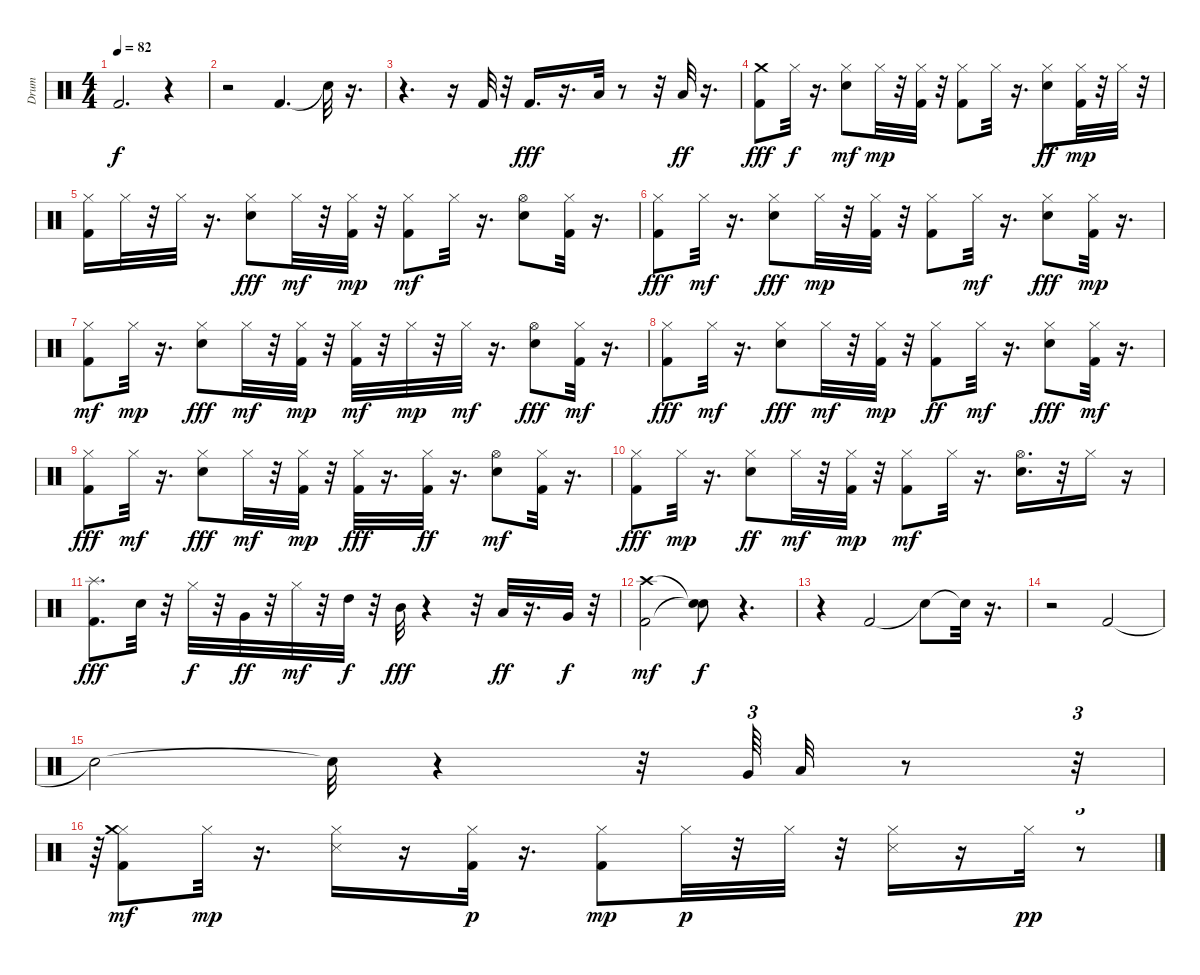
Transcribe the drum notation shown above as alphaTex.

\track ("Drum" "Drum") {instrument percussion}
\staff {score}
\articulation defaults
\ts (4 4)
\tempo 82
\clef neutral
\ks c "Kick (hit) 2".2{d dy f}
r.4 |
r.2 "Kick (hit) 2".4{d} "Snare (hit)"{t}.32 r.16{d} |
r.4{d} r.16 "Kick (hit) 2".32 r.32 "Kick (hit) 2".16{d dy fff} r.16{d} "Low Tom (hit)".32 r.8 r.32 "Low Floor Tom (hit)".32{dy ff} r.16{d} |
("Kick (hit) 2" "Crash medium (hit)").8{dy fff} "Hi-Hat (closed)".32{dy f} r.16{d} ("Electric Snare (hit)" "Hi-Hat (closed)").8{dy mf} "Hi-Hat (closed)".32{dy mp} r.32 ("Kick (hit) 2" "Hi-Hat (closed)").32 r.32 ("Kick (hit) 2" "Hi-Hat (closed)").8 "Hi-Hat (closed)".32 r.16{d} ("Electric Snare (hit)" "Hi-Hat (closed)").8{dy ff} ("Kick (hit) 2" "Hi-Hat (closed)").32{dy mp} r.32 "Hi-Hat (closed)".32 r.32 |
("Kick (hit) 2" "Hi-Hat (closed)").16 "Hi-Hat (closed)".32 r.32 "Hi-Hat (closed)".32 r.16{d} ("Electric Snare (hit)" "Hi-Hat (closed)").8{dy fff} "Hi-Hat (closed)".32{dy mf} r.32 ("Kick (hit) 2" "Hi-Hat (closed)").32{dy mp} r.32 ("Kick (hit) 2" "Hi-Hat (closed)").8{dy mf} "Hi-Hat (closed)".32 r.16{d} ("Electric Snare (hit)" "Hi-Hat (open)").8 ("Kick (hit) 2" "Hi-Hat (closed)").32 r.16{d} |
("Kick (hit) 2" "Hi-Hat (closed)").8{dy fff} "Hi-Hat (closed)".32{dy mf} r.16{d} ("Electric Snare (hit)" "Hi-Hat (closed)").8{dy fff} "Hi-Hat (closed)".32{dy mp} r.32 ("Kick (hit) 2" "Hi-Hat (closed)").32 r.32 ("Kick (hit) 2" "Hi-Hat (closed)").8 "Hi-Hat (closed)".32{dy mf} r.16{d} ("Electric Snare (hit)" "Hi-Hat (closed)").8{dy fff} ("Kick (hit) 2" "Hi-Hat (closed)").32{dy mp} r.16{d} |
("Kick (hit) 2" "Hi-Hat (closed)").8{dy mf} "Hi-Hat (closed)".32{dy mp} r.16{d} ("Electric Snare (hit)" "Hi-Hat (closed)").8{dy fff} "Hi-Hat (closed)".32{dy mf} r.32 ("Kick (hit) 2" "Hi-Hat (closed)").32{dy mp} r.32 ("Kick (hit) 2" "Hi-Hat (closed)").32{dy mf} r.32 "Hi-Hat (closed)".32{dy mp} r.32 "Hi-Hat (closed)".32{dy mf} r.16{d} ("Electric Snare (hit)" "Hi-Hat (open)").8{dy fff} ("Kick (hit) 2" "Hi-Hat (closed)").32{dy mf} r.16{d} |
("Kick (hit) 2" "Hi-Hat (closed)").8{dy fff} "Hi-Hat (closed)".32{dy mf} r.16{d} ("Electric Snare (hit)" "Hi-Hat (closed)").8{dy fff} "Hi-Hat (closed)".32{dy mf} r.32 ("Kick (hit) 2" "Hi-Hat (closed)").32{dy mp} r.32 ("Kick (hit) 2" "Hi-Hat (closed)").8{dy ff} "Hi-Hat (closed)".32{dy mf} r.16{d} ("Electric Snare (hit)" "Hi-Hat (closed)").8{dy fff} ("Kick (hit) 2" "Hi-Hat (closed)").32{dy mf} r.16{d} |
("Kick (hit) 2" "Hi-Hat (closed)").8{dy fff} "Hi-Hat (closed)".32{dy mf} r.16{d} ("Electric Snare (hit)" "Hi-Hat (closed)").8{dy fff} "Hi-Hat (closed)".32{dy mf} r.32 ("Kick (hit) 2" "Hi-Hat (closed)").32{dy mp} r.32 ("Kick (hit) 2" "Hi-Hat (closed)").32{dy fff} r.16{d} ("Kick (hit) 2" "Hi-Hat (closed)").32{dy ff} r.16{d} ("Electric Snare (hit)" "Hi-Hat (open)").8{dy mf} ("Kick (hit) 2" "Hi-Hat (closed)").32 r.16{d} |
("Kick (hit) 2" "Hi-Hat (closed)").8{dy fff} "Hi-Hat (closed)".32{dy mp} r.16{d} ("Electric Snare (hit)" "Hi-Hat (closed)").8{dy ff} "Hi-Hat (closed)".32{dy mf} r.32 ("Kick (hit) 2" "Hi-Hat (closed)").32{dy mp} r.32 ("Kick (hit) 2" "Hi-Hat (closed)").8{dy mf} "Hi-Hat (closed)".32 r.16{d} ("Electric Snare (hit)" "Hi-Hat (open)").16{d} r.32 "Hi-Hat (closed)".16 r.16 |
("Kick (hit) 2" "Splash (hit)").8{d dy fff} "Electric Snare (hit)".32 r.32 "Hi-Hat (closed)".32{dy f} r.32 "Very Low Tom (hit)".32{dy ff} r.32 "Hi-Hat (closed)".32{dy mf} r.32 "High Tom (hit)".32{dy f} r.32 "Mid Tom (hit)".32{dy fff} r.4 r.32 "Low Tom (hit)".32{dy ff} r.16{d} "Very Low Tom (hit)".32{dy f} r.32 |
("Kick (hit) 2" "Crash high (hit)").2{dy mf} ("Snare (hit)"{t} "Snare (hit)"{t}).8{dy f} r.4{d} |
r.4 "Kick (hit) 2".2 "Snare (hit)"{t}.8 "Snare (hit)"{t}.32 r.16{d} |
r.2 "Kick (hit) 2".2 |
"Snare (hit)"{t}.2 "Snare (hit)"{t}.32 r.4 r.32 "Very Low Tom (hit)".64{tu (3 2)} "Low Floor Tom (hit)".32 r.8 r.32{tu (3 2)} |
r.64{tu (3 2)} ("Kick (hit) 2" "Hi-Hat (closed)" "Crash medium (hit)").8{dy mf} "Hi-Hat (closed)".32{dy mp} r.16{d} ("Snare (side stick) 3" "Hi-Hat (closed)").16 r.16 ("Kick (hit) 2" "Hi-Hat (closed)").32{dy p} r.16{d} ("Kick (hit) 2" "Hi-Hat (closed)").8{dy mp} "Hi-Hat (closed)".32{dy p} r.32 "Hi-Hat (closed)".32 r.32 ("Snare (side stick) 3" "Hi-Hat (closed)").16 r.16 "Hi-Hat (closed)".32{dy pp} r.8{tu (3 2)}
